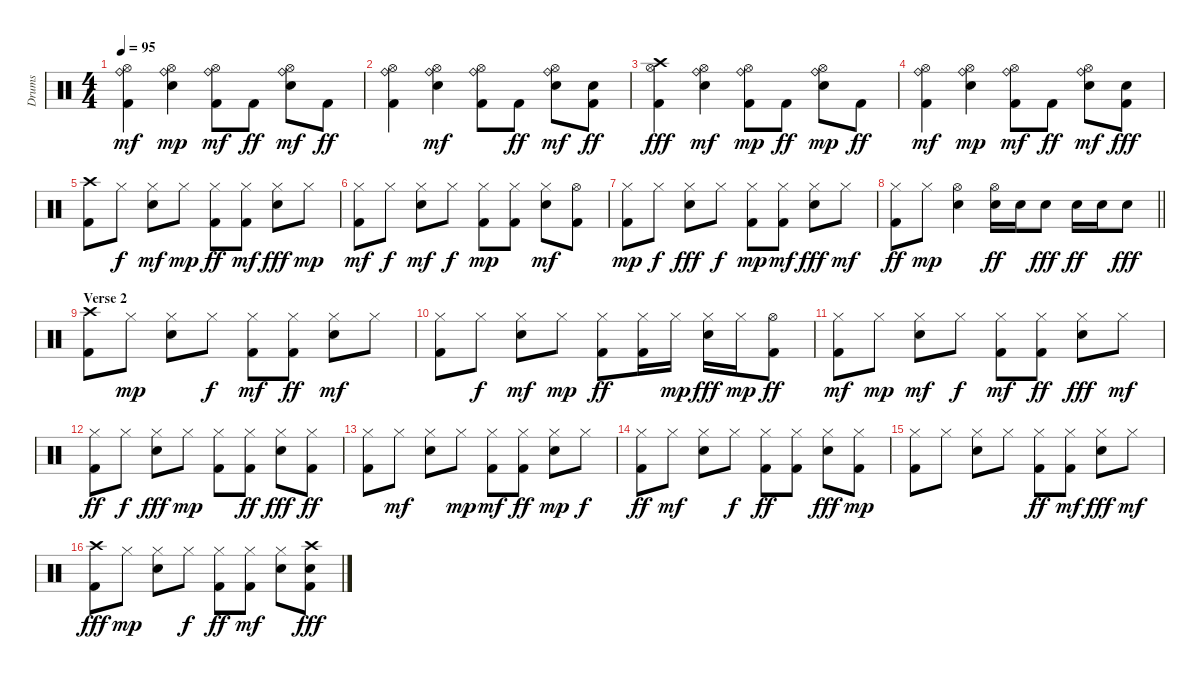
\track ("Drums" "Drums") {instrument percussion}
\staff {score}
\articulation defaults
\ts (4 4)
\tempo 95
\clef neutral
\ks c
("Kick (hit) 2" "Hi-Hat (open)" "Ride (bell)").4{dy mf} ("Electric Snare (hit)" "Hi-Hat (open)" "Ride (bell)").4{dy mp} ("Kick (hit) 2" "Hi-Hat (open)" "Ride (bell)").8{dy mf} "Kick (hit) 2".8{dy ff} ("Electric Snare (hit)" "Hi-Hat (open)" "Ride (bell)").8{dy mf} "Kick (hit) 2".8{dy ff} |
("Kick (hit) 2" "Hi-Hat (open)" "Ride (bell)").4 ("Electric Snare (hit)" "Hi-Hat (open)" "Ride (bell)").4{dy mf} ("Kick (hit) 2" "Hi-Hat (open)" "Ride (bell)").8 "Kick (hit) 2".8{dy ff} ("Electric Snare (hit)" "Hi-Hat (open)" "Ride (bell)").8{dy mf} ("Kick (hit) 2" "Electric Snare (hit)").8{dy ff} |
("Kick (hit) 2" "Hi-Hat (open)" "Crash high (hit)").4{dy fff} ("Electric Snare (hit)" "Hi-Hat (open)" "Ride (bell)").4{dy mf} ("Kick (hit) 2" "Hi-Hat (open)" "Ride (bell)").8{dy mp} "Kick (hit) 2".8{dy ff} ("Electric Snare (hit)" "Hi-Hat (open)" "Ride (bell)").8{dy mp} "Kick (hit) 2".8{dy ff} |
("Kick (hit) 2" "Hi-Hat (open)" "Ride (bell)").4{dy mf} ("Electric Snare (hit)" "Hi-Hat (open)" "Ride (bell)").4{dy mp} ("Kick (hit) 2" "Hi-Hat (open)" "Ride (bell)").8{dy mf} "Kick (hit) 2".8{dy ff} ("Electric Snare (hit)" "Hi-Hat (open)" "Ride (bell)").8{dy mf} ("Kick (hit) 2" "Electric Snare (hit)").8{dy fff} |
("Kick (hit) 2" "Crash high (hit)").8 "Hi-Hat (closed)".8{dy f} ("Electric Snare (hit)" "Hi-Hat (closed)").8{dy mf} "Hi-Hat (closed)".8{dy mp} ("Kick (hit) 2" "Hi-Hat (closed)").8{dy ff} ("Kick (hit) 2" "Hi-Hat (closed)").8{dy mf} ("Electric Snare (hit)" "Hi-Hat (closed)").8{dy fff} "Hi-Hat (closed)".8{dy mp} |
("Kick (hit) 2" "Hi-Hat (closed)").8{dy mf} "Hi-Hat (closed)".8{dy f} ("Electric Snare (hit)" "Hi-Hat (closed)").8{dy mf} "Hi-Hat (closed)".8{dy f} ("Kick (hit) 2" "Hi-Hat (closed)").8{dy mp} ("Kick (hit) 2" "Hi-Hat (closed)").8 ("Electric Snare (hit)" "Hi-Hat (closed)").8{dy mf} ("Kick (hit) 2" "Hi-Hat (open)").8 |
("Kick (hit) 2" "Hi-Hat (closed)").8{dy mp} "Hi-Hat (closed)".8{dy f} ("Electric Snare (hit)" "Hi-Hat (closed)").8{dy fff} "Hi-Hat (closed)".8{dy f} ("Kick (hit) 2" "Hi-Hat (closed)").8{dy mp} ("Kick (hit) 2" "Hi-Hat (closed)").8{dy mf} ("Electric Snare (hit)" "Hi-Hat (closed)").8{dy fff} "Hi-Hat (closed)".8{dy mf} |
\barLineRight lightlight
("Kick (hit) 2" "Hi-Hat (closed)").8{dy ff} "Hi-Hat (closed)".8{dy mp} ("Electric Snare (hit)" "Hi-Hat (open)").4 ("Electric Snare (hit)" "Hi-Hat (open)").16{dy ff} "Electric Snare (hit)".16 "Electric Snare (hit)".8{dy fff} "Electric Snare (hit)".16{dy ff} "Electric Snare (hit)".16 "Electric Snare (hit)".8{dy fff} |
\section ("" "Verse 2")
("Kick (hit) 2" "Crash high (hit)").8 "Hi-Hat (closed)".8{dy mp} ("Electric Snare (hit)" "Hi-Hat (closed)").8 "Hi-Hat (closed)".8{dy f} ("Kick (hit) 2" "Hi-Hat (closed)").8{dy mf} ("Kick (hit) 2" "Hi-Hat (closed)").8{dy ff} ("Electric Snare (hit)" "Hi-Hat (closed)").8{dy mf} "Hi-Hat (closed)".8 |
("Kick (hit) 2" "Hi-Hat (closed)").8 "Hi-Hat (closed)".8{dy f} ("Electric Snare (hit)" "Hi-Hat (closed)").8{dy mf} "Hi-Hat (closed)".8{dy mp} ("Kick (hit) 2" "Hi-Hat (closed)").8{dy ff} ("Kick (hit) 2" "Hi-Hat (closed)").16 "Hi-Hat (closed)".16{dy mp} ("Electric Snare (hit)" "Hi-Hat (closed)").16{dy fff} "Hi-Hat (closed)".16{dy mp} ("Kick (hit) 2" "Hi-Hat (open)").8{dy ff} |
("Kick (hit) 2" "Hi-Hat (closed)").8{dy mf} "Hi-Hat (closed)".8{dy mp} ("Electric Snare (hit)" "Hi-Hat (closed)").8{dy mf} "Hi-Hat (closed)".8{dy f} ("Kick (hit) 2" "Hi-Hat (closed)").8{dy mf} ("Kick (hit) 2" "Hi-Hat (closed)").8{dy ff} ("Electric Snare (hit)" "Hi-Hat (closed)").8{dy fff} "Hi-Hat (closed)".8{dy mf} |
("Kick (hit) 2" "Hi-Hat (closed)").8{dy ff} "Hi-Hat (closed)".8{dy f} ("Electric Snare (hit)" "Hi-Hat (closed)").8{dy fff} "Hi-Hat (closed)".8{dy mp} ("Kick (hit) 2" "Hi-Hat (closed)").8 ("Kick (hit) 2" "Hi-Hat (closed)").8{dy ff} ("Electric Snare (hit)" "Hi-Hat (closed)").8{dy fff} ("Kick (hit) 2" "Hi-Hat (closed)").8{dy ff} |
("Kick (hit) 2" "Hi-Hat (closed)").8 "Hi-Hat (closed)".8{dy mf} ("Electric Snare (hit)" "Hi-Hat (closed)").8 "Hi-Hat (closed)".8{dy mp} ("Kick (hit) 2" "Hi-Hat (closed)").8{dy mf} ("Kick (hit) 2" "Hi-Hat (closed)").8{dy ff} ("Electric Snare (hit)" "Hi-Hat (closed)").8{dy mp} "Hi-Hat (closed)".8{dy f} |
("Kick (hit) 2" "Hi-Hat (closed)").8{dy ff} "Hi-Hat (closed)".8{dy mf} ("Electric Snare (hit)" "Hi-Hat (closed)").8 "Hi-Hat (closed)".8{dy f} ("Kick (hit) 2" "Hi-Hat (closed)").8{dy ff} ("Kick (hit) 2" "Hi-Hat (closed)").8 ("Electric Snare (hit)" "Hi-Hat (closed)").8{dy fff} ("Kick (hit) 2" "Hi-Hat (closed)").8{dy mp} |
("Kick (hit) 2" "Hi-Hat (closed)").8 "Hi-Hat (closed)".8 ("Electric Snare (hit)" "Hi-Hat (closed)").8 "Hi-Hat (closed)".8 ("Kick (hit) 2" "Hi-Hat (closed)").8{dy ff} ("Kick (hit) 2" "Hi-Hat (closed)").8{dy mf} ("Electric Snare (hit)" "Hi-Hat (closed)").8{dy fff} "Hi-Hat (closed)".8{dy mf} |
("Kick (hit) 2" "Crash high (hit)").8{dy fff} "Hi-Hat (closed)".8{dy mp} ("Electric Snare (hit)" "Hi-Hat (closed)").8 "Hi-Hat (closed)".8{dy f} ("Kick (hit) 2" "Hi-Hat (closed)").8{dy ff} ("Kick (hit) 2" "Hi-Hat (closed)").8{dy mf} ("Electric Snare (hit)" "Hi-Hat (closed)").8 ("Kick (hit) 2" "Electric Snare (hit)" "Crash high (hit)").8{dy fff}
